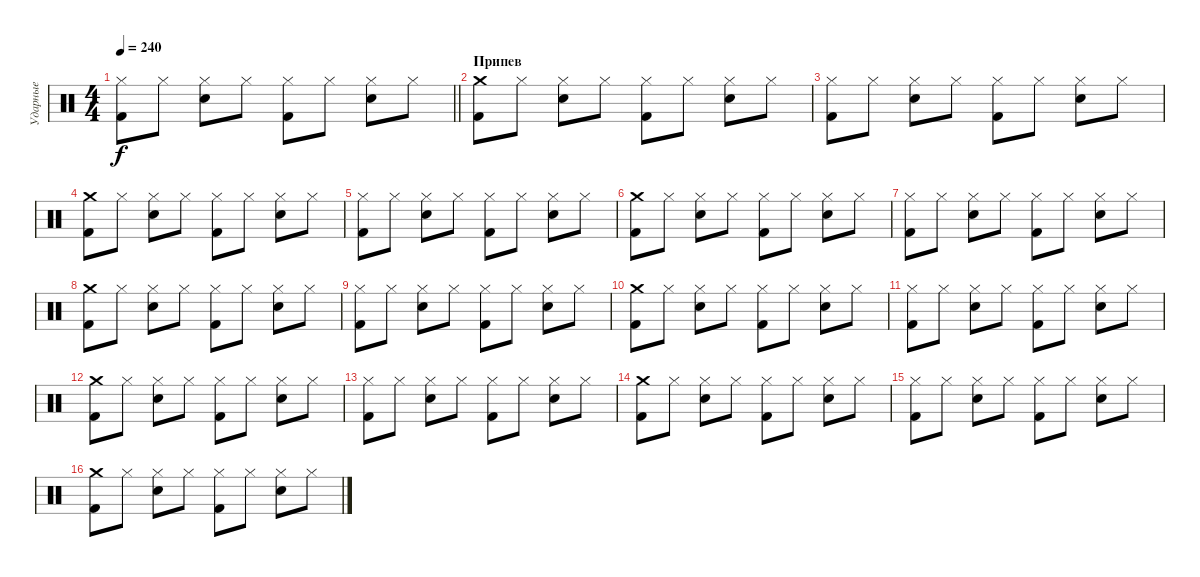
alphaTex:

\track ("Ударные" "Ударные") {instrument percussion}
\staff {score}
\articulation defaults
\ts (4 4)
\tempo 240
\clef neutral
\barLineRight lightlight
\ks c
("Hi-Hat (closed)" "Kick (hit) 2").8{dy f} "Hi-Hat (closed)".8 ("Hi-Hat (closed)" "Snare (hit) 2").8 "Hi-Hat (closed)".8 ("Hi-Hat (closed)" "Kick (hit) 2").8 "Hi-Hat (closed)".8 ("Hi-Hat (closed)" "Snare (hit) 2").8 "Hi-Hat (closed)".8 |
\section ("" "Припев")
("Crash medium (hit)" "Kick (hit) 2").8 "Hi-Hat (closed)".8 ("Hi-Hat (closed)" "Snare (hit) 2").8 "Hi-Hat (closed)".8 ("Hi-Hat (closed)" "Kick (hit) 2").8 "Hi-Hat (closed)".8 ("Hi-Hat (closed)" "Snare (hit) 2").8 "Hi-Hat (closed)".8 |
("Hi-Hat (closed)" "Kick (hit) 2").8 "Hi-Hat (closed)".8 ("Hi-Hat (closed)" "Snare (hit) 2").8 "Hi-Hat (closed)".8 ("Hi-Hat (closed)" "Kick (hit) 2").8 "Hi-Hat (closed)".8 ("Hi-Hat (closed)" "Snare (hit) 2").8 "Hi-Hat (closed)".8 |
("Crash medium (hit)" "Kick (hit) 2").8 "Hi-Hat (closed)".8 ("Hi-Hat (closed)" "Snare (hit) 2").8 "Hi-Hat (closed)".8 ("Hi-Hat (closed)" "Kick (hit) 2").8 "Hi-Hat (closed)".8 ("Hi-Hat (closed)" "Snare (hit) 2").8 "Hi-Hat (closed)".8 |
("Hi-Hat (closed)" "Kick (hit) 2").8 "Hi-Hat (closed)".8 ("Hi-Hat (closed)" "Snare (hit) 2").8 "Hi-Hat (closed)".8 ("Hi-Hat (closed)" "Kick (hit) 2").8 "Hi-Hat (closed)".8 ("Hi-Hat (closed)" "Snare (hit) 2").8 "Hi-Hat (closed)".8 |
("Crash medium (hit)" "Kick (hit) 2").8 "Hi-Hat (closed)".8 ("Hi-Hat (closed)" "Snare (hit) 2").8 "Hi-Hat (closed)".8 ("Hi-Hat (closed)" "Kick (hit) 2").8 "Hi-Hat (closed)".8 ("Hi-Hat (closed)" "Snare (hit) 2").8 "Hi-Hat (closed)".8 |
("Hi-Hat (closed)" "Kick (hit) 2").8 "Hi-Hat (closed)".8 ("Hi-Hat (closed)" "Snare (hit) 2").8 "Hi-Hat (closed)".8 ("Hi-Hat (closed)" "Kick (hit) 2").8 "Hi-Hat (closed)".8 ("Hi-Hat (closed)" "Snare (hit) 2").8 "Hi-Hat (closed)".8 |
("Crash medium (hit)" "Kick (hit) 2").8 "Hi-Hat (closed)".8 ("Hi-Hat (closed)" "Snare (hit) 2").8 "Hi-Hat (closed)".8 ("Hi-Hat (closed)" "Kick (hit) 2").8 "Hi-Hat (closed)".8 ("Hi-Hat (closed)" "Snare (hit) 2").8 "Hi-Hat (closed)".8 |
("Hi-Hat (closed)" "Kick (hit) 2").8 "Hi-Hat (closed)".8 ("Hi-Hat (closed)" "Snare (hit) 2").8 "Hi-Hat (closed)".8 ("Hi-Hat (closed)" "Kick (hit) 2").8 "Hi-Hat (closed)".8 ("Hi-Hat (closed)" "Snare (hit) 2").8 "Hi-Hat (closed)".8 |
("Crash medium (hit)" "Kick (hit) 2").8 "Hi-Hat (closed)".8 ("Hi-Hat (closed)" "Snare (hit) 2").8 "Hi-Hat (closed)".8 ("Hi-Hat (closed)" "Kick (hit) 2").8 "Hi-Hat (closed)".8 ("Hi-Hat (closed)" "Snare (hit) 2").8 "Hi-Hat (closed)".8 |
("Hi-Hat (closed)" "Kick (hit) 2").8 "Hi-Hat (closed)".8 ("Hi-Hat (closed)" "Snare (hit) 2").8 "Hi-Hat (closed)".8 ("Hi-Hat (closed)" "Kick (hit) 2").8 "Hi-Hat (closed)".8 ("Hi-Hat (closed)" "Snare (hit) 2").8 "Hi-Hat (closed)".8 |
("Crash medium (hit)" "Kick (hit) 2").8 "Hi-Hat (closed)".8 ("Hi-Hat (closed)" "Snare (hit) 2").8 "Hi-Hat (closed)".8 ("Hi-Hat (closed)" "Kick (hit) 2").8 "Hi-Hat (closed)".8 ("Hi-Hat (closed)" "Snare (hit) 2").8 "Hi-Hat (closed)".8 |
("Hi-Hat (closed)" "Kick (hit) 2").8 "Hi-Hat (closed)".8 ("Hi-Hat (closed)" "Snare (hit) 2").8 "Hi-Hat (closed)".8 ("Hi-Hat (closed)" "Kick (hit) 2").8 "Hi-Hat (closed)".8 ("Hi-Hat (closed)" "Snare (hit) 2").8 "Hi-Hat (closed)".8 |
("Crash medium (hit)" "Kick (hit) 2").8 "Hi-Hat (closed)".8 ("Hi-Hat (closed)" "Snare (hit) 2").8 "Hi-Hat (closed)".8 ("Hi-Hat (closed)" "Kick (hit) 2").8 "Hi-Hat (closed)".8 ("Hi-Hat (closed)" "Snare (hit) 2").8 "Hi-Hat (closed)".8 |
("Hi-Hat (closed)" "Kick (hit) 2").8 "Hi-Hat (closed)".8 ("Hi-Hat (closed)" "Snare (hit) 2").8 "Hi-Hat (closed)".8 ("Hi-Hat (closed)" "Kick (hit) 2").8 "Hi-Hat (closed)".8 ("Hi-Hat (closed)" "Snare (hit) 2").8 "Hi-Hat (closed)".8 |
("Crash medium (hit)" "Kick (hit) 2").8 "Hi-Hat (closed)".8 ("Hi-Hat (closed)" "Snare (hit) 2").8 "Hi-Hat (closed)".8 ("Hi-Hat (closed)" "Kick (hit) 2").8 "Hi-Hat (closed)".8 ("Hi-Hat (closed)" "Snare (hit) 2").8 "Hi-Hat (closed)".8
